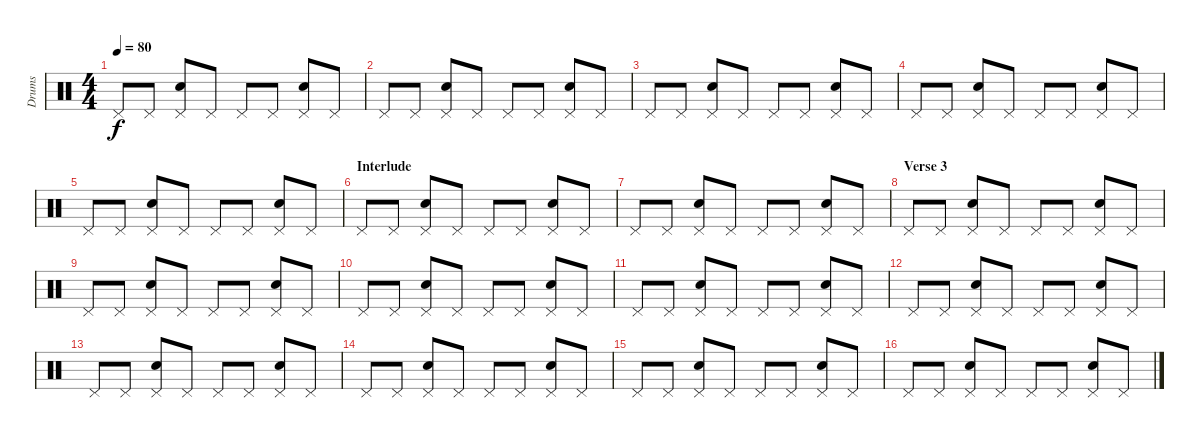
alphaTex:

\track ("Drums" "Drums") {instrument percussion}
\staff {score}
\articulation defaults
\ts (4 4)
\tempo 80
\clef neutral
\ks c "Pedal Hi-Hat (hit)".8{dy f} "Pedal Hi-Hat (hit)".8
("Pedal Hi-Hat (hit)" "Snare (hit) 2").8 "Pedal Hi-Hat (hit)".8 "Pedal Hi-Hat (hit)".8 "Pedal Hi-Hat (hit)".8 ("Pedal Hi-Hat (hit)" "Snare (hit) 2").8 "Pedal Hi-Hat (hit)".8 |
"Pedal Hi-Hat (hit)".8 "Pedal Hi-Hat (hit)".8 ("Pedal Hi-Hat (hit)" "Snare (hit) 2").8 "Pedal Hi-Hat (hit)".8 "Pedal Hi-Hat (hit)".8 "Pedal Hi-Hat (hit)".8 ("Pedal Hi-Hat (hit)" "Snare (hit) 2").8 "Pedal Hi-Hat (hit)".8 |
"Pedal Hi-Hat (hit)".8 "Pedal Hi-Hat (hit)".8 ("Pedal Hi-Hat (hit)" "Snare (hit) 2").8 "Pedal Hi-Hat (hit)".8 "Pedal Hi-Hat (hit)".8 "Pedal Hi-Hat (hit)".8 ("Pedal Hi-Hat (hit)" "Snare (hit) 2").8 "Pedal Hi-Hat (hit)".8 |
"Pedal Hi-Hat (hit)".8 "Pedal Hi-Hat (hit)".8 ("Pedal Hi-Hat (hit)" "Snare (hit) 2").8 "Pedal Hi-Hat (hit)".8 "Pedal Hi-Hat (hit)".8 "Pedal Hi-Hat (hit)".8 ("Pedal Hi-Hat (hit)" "Snare (hit) 2").8 "Pedal Hi-Hat (hit)".8 |
"Pedal Hi-Hat (hit)".8 "Pedal Hi-Hat (hit)".8 ("Pedal Hi-Hat (hit)" "Snare (hit) 2").8 "Pedal Hi-Hat (hit)".8 "Pedal Hi-Hat (hit)".8 "Pedal Hi-Hat (hit)".8 ("Pedal Hi-Hat (hit)" "Snare (hit) 2").8 "Pedal Hi-Hat (hit)".8 |
\section ("" "Interlude")
"Pedal Hi-Hat (hit)".8 "Pedal Hi-Hat (hit)".8 ("Pedal Hi-Hat (hit)" "Snare (hit) 2").8 "Pedal Hi-Hat (hit)".8 "Pedal Hi-Hat (hit)".8 "Pedal Hi-Hat (hit)".8 ("Pedal Hi-Hat (hit)" "Snare (hit) 2").8 "Pedal Hi-Hat (hit)".8 |
"Pedal Hi-Hat (hit)".8 "Pedal Hi-Hat (hit)".8 ("Pedal Hi-Hat (hit)" "Snare (hit) 2").8 "Pedal Hi-Hat (hit)".8 "Pedal Hi-Hat (hit)".8 "Pedal Hi-Hat (hit)".8 ("Pedal Hi-Hat (hit)" "Snare (hit) 2").8 "Pedal Hi-Hat (hit)".8 |
\section ("" "Verse 3")
"Pedal Hi-Hat (hit)".8 "Pedal Hi-Hat (hit)".8 ("Pedal Hi-Hat (hit)" "Snare (hit) 2").8 "Pedal Hi-Hat (hit)".8 "Pedal Hi-Hat (hit)".8 "Pedal Hi-Hat (hit)".8 ("Pedal Hi-Hat (hit)" "Snare (hit) 2").8 "Pedal Hi-Hat (hit)".8 |
"Pedal Hi-Hat (hit)".8 "Pedal Hi-Hat (hit)".8 ("Pedal Hi-Hat (hit)" "Snare (hit) 2").8 "Pedal Hi-Hat (hit)".8 "Pedal Hi-Hat (hit)".8 "Pedal Hi-Hat (hit)".8 ("Pedal Hi-Hat (hit)" "Snare (hit) 2").8 "Pedal Hi-Hat (hit)".8 |
"Pedal Hi-Hat (hit)".8 "Pedal Hi-Hat (hit)".8 ("Pedal Hi-Hat (hit)" "Snare (hit) 2").8 "Pedal Hi-Hat (hit)".8 "Pedal Hi-Hat (hit)".8 "Pedal Hi-Hat (hit)".8 ("Pedal Hi-Hat (hit)" "Snare (hit) 2").8 "Pedal Hi-Hat (hit)".8 |
"Pedal Hi-Hat (hit)".8 "Pedal Hi-Hat (hit)".8 ("Pedal Hi-Hat (hit)" "Snare (hit) 2").8 "Pedal Hi-Hat (hit)".8 "Pedal Hi-Hat (hit)".8 "Pedal Hi-Hat (hit)".8 ("Pedal Hi-Hat (hit)" "Snare (hit) 2").8 "Pedal Hi-Hat (hit)".8 |
"Pedal Hi-Hat (hit)".8 "Pedal Hi-Hat (hit)".8 ("Pedal Hi-Hat (hit)" "Snare (hit) 2").8 "Pedal Hi-Hat (hit)".8 "Pedal Hi-Hat (hit)".8 "Pedal Hi-Hat (hit)".8 ("Pedal Hi-Hat (hit)" "Snare (hit) 2").8 "Pedal Hi-Hat (hit)".8 |
"Pedal Hi-Hat (hit)".8 "Pedal Hi-Hat (hit)".8 ("Pedal Hi-Hat (hit)" "Snare (hit) 2").8 "Pedal Hi-Hat (hit)".8 "Pedal Hi-Hat (hit)".8 "Pedal Hi-Hat (hit)".8 ("Pedal Hi-Hat (hit)" "Snare (hit) 2").8 "Pedal Hi-Hat (hit)".8 |
"Pedal Hi-Hat (hit)".8 "Pedal Hi-Hat (hit)".8 ("Pedal Hi-Hat (hit)" "Snare (hit) 2").8 "Pedal Hi-Hat (hit)".8 "Pedal Hi-Hat (hit)".8 "Pedal Hi-Hat (hit)".8 ("Pedal Hi-Hat (hit)" "Snare (hit) 2").8 "Pedal Hi-Hat (hit)".8 |
"Pedal Hi-Hat (hit)".8 "Pedal Hi-Hat (hit)".8 ("Pedal Hi-Hat (hit)" "Snare (hit) 2").8 "Pedal Hi-Hat (hit)".8 "Pedal Hi-Hat (hit)".8 "Pedal Hi-Hat (hit)".8 ("Pedal Hi-Hat (hit)" "Snare (hit) 2").8 "Pedal Hi-Hat (hit)".8 |
"Pedal Hi-Hat (hit)".8 "Pedal Hi-Hat (hit)".8 ("Pedal Hi-Hat (hit)" "Snare (hit) 2").8 "Pedal Hi-Hat (hit)".8 "Pedal Hi-Hat (hit)".8 "Pedal Hi-Hat (hit)".8 ("Pedal Hi-Hat (hit)" "Snare (hit) 2").8 "Pedal Hi-Hat (hit)".8
